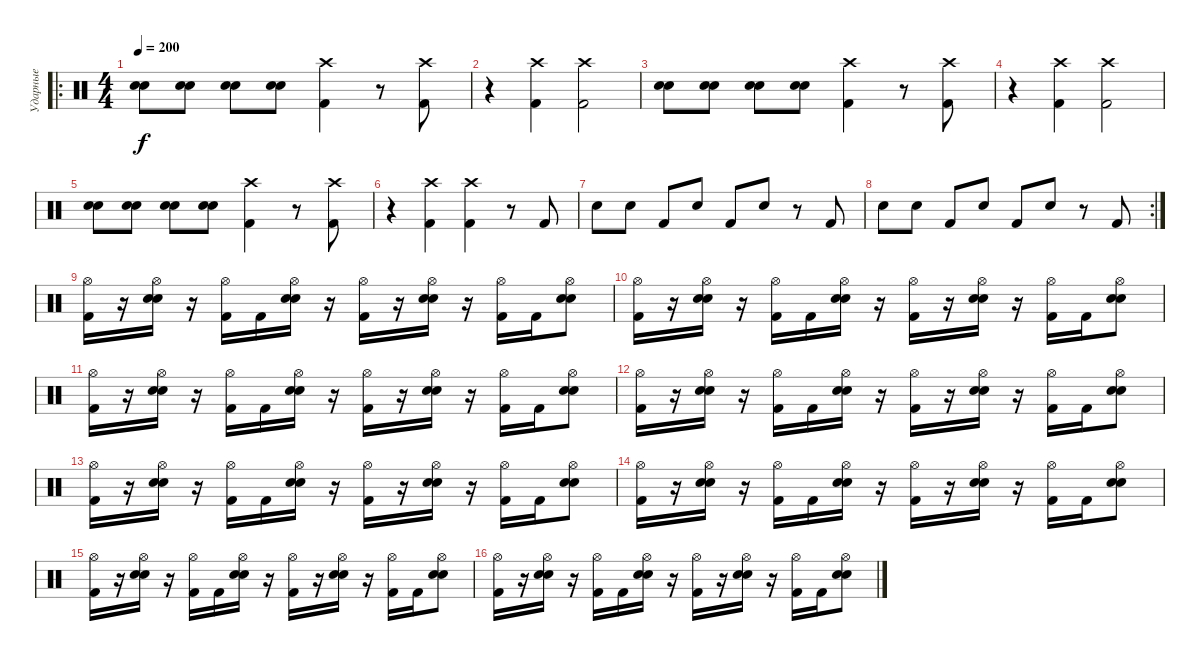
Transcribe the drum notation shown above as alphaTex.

\track ("Ударные" "Ударные") {instrument percussion}
\staff {score}
\articulation defaults
\ro
\ts (4 4)
\tempo 200
\clef neutral
\ks c
("Electric Snare (hit)" "Snare (hit) 2").8{dy f} ("Electric Snare (hit)" "Snare (hit) 2").8 ("Electric Snare (hit)" "Snare (hit) 2").8 ("Electric Snare (hit)" "Snare (hit) 2").8 ("Kick (hit) 2" "Crash high (hit)").4 r.8 ("Kick (hit) 2" "Crash high (hit)").8 |
r.4 ("Kick (hit) 2" "Crash high (hit)").4 ("Kick (hit) 2" "Crash high (hit)").2 |
("Electric Snare (hit)" "Snare (hit) 2").8 ("Electric Snare (hit)" "Snare (hit) 2").8 ("Electric Snare (hit)" "Snare (hit) 2").8 ("Electric Snare (hit)" "Snare (hit) 2").8 ("Kick (hit) 2" "Crash high (hit)").4 r.8 ("Kick (hit) 2" "Crash high (hit)").8 |
r.4 ("Kick (hit) 2" "Crash high (hit)").4 ("Kick (hit) 2" "Crash high (hit)").2 |
("Electric Snare (hit)" "Snare (hit) 2").8 ("Electric Snare (hit)" "Snare (hit) 2").8 ("Electric Snare (hit)" "Snare (hit) 2").8 ("Electric Snare (hit)" "Snare (hit) 2").8 ("Kick (hit) 2" "Crash high (hit)").4 r.8 ("Kick (hit) 2" "Crash high (hit)").8 |
r.4 ("Kick (hit) 2" "Crash high (hit)").4 ("Kick (hit) 2" "Crash high (hit)").4 r.8 "Kick (hit) 2".8 |
"Electric Snare (hit)".8 "Electric Snare (hit)".8 "Kick (hit) 2".8 "Electric Snare (hit)".8 "Kick (hit) 2".8 "Electric Snare (hit)".8 r.8 "Kick (hit) 2".8 |
\rc 2 "Electric Snare (hit)".8 "Electric Snare (hit)".8 "Kick (hit) 2".8 "Electric Snare (hit)".8 "Kick (hit) 2".8 "Electric Snare (hit)".8
r.8 "Kick (hit) 2".8 |
("Hi-Hat (open)" "Kick (hit) 2").16 r.16 ("Hi-Hat (open)" "Electric Snare (hit)" "Snare (hit) 2").16 r.16 ("Hi-Hat (open)" "Kick (hit) 2").16 "Kick (hit) 2".16 ("Hi-Hat (open)" "Electric Snare (hit)" "Snare (hit) 2").16 r.16 ("Hi-Hat (open)" "Kick (hit) 2").16 r.16 ("Hi-Hat (open)" "Electric Snare (hit)" "Snare (hit) 2").16 r.16 ("Hi-Hat (open)" "Kick (hit) 2").16 "Kick (hit) 2".16 ("Hi-Hat (open)" "Electric Snare (hit)" "Snare (hit) 2").8 |
("Hi-Hat (open)" "Kick (hit) 2").16 r.16 ("Hi-Hat (open)" "Electric Snare (hit)" "Snare (hit) 2").16 r.16 ("Hi-Hat (open)" "Kick (hit) 2").16 "Kick (hit) 2".16 ("Hi-Hat (open)" "Electric Snare (hit)" "Snare (hit) 2").16 r.16 ("Hi-Hat (open)" "Kick (hit) 2").16 r.16 ("Hi-Hat (open)" "Electric Snare (hit)" "Snare (hit) 2").16 r.16 ("Hi-Hat (open)" "Kick (hit) 2").16 "Kick (hit) 2".16 ("Hi-Hat (open)" "Electric Snare (hit)" "Snare (hit) 2").8 |
("Hi-Hat (open)" "Kick (hit) 2").16 r.16 ("Hi-Hat (open)" "Electric Snare (hit)" "Snare (hit) 2").16 r.16 ("Hi-Hat (open)" "Kick (hit) 2").16 "Kick (hit) 2".16 ("Hi-Hat (open)" "Electric Snare (hit)" "Snare (hit) 2").16 r.16 ("Hi-Hat (open)" "Kick (hit) 2").16 r.16 ("Hi-Hat (open)" "Electric Snare (hit)" "Snare (hit) 2").16 r.16 ("Hi-Hat (open)" "Kick (hit) 2").16 "Kick (hit) 2".16 ("Hi-Hat (open)" "Electric Snare (hit)" "Snare (hit) 2").8 |
("Hi-Hat (open)" "Kick (hit) 2").16 r.16 ("Hi-Hat (open)" "Electric Snare (hit)" "Snare (hit) 2").16 r.16 ("Hi-Hat (open)" "Kick (hit) 2").16 "Kick (hit) 2".16 ("Hi-Hat (open)" "Electric Snare (hit)" "Snare (hit) 2").16 r.16 ("Hi-Hat (open)" "Kick (hit) 2").16 r.16 ("Hi-Hat (open)" "Electric Snare (hit)" "Snare (hit) 2").16 r.16 ("Hi-Hat (open)" "Kick (hit) 2").16 "Kick (hit) 2".16 ("Hi-Hat (open)" "Electric Snare (hit)" "Snare (hit) 2").8 |
("Hi-Hat (open)" "Kick (hit) 2").16 r.16 ("Hi-Hat (open)" "Electric Snare (hit)" "Snare (hit) 2").16 r.16 ("Hi-Hat (open)" "Kick (hit) 2").16 "Kick (hit) 2".16 ("Hi-Hat (open)" "Electric Snare (hit)" "Snare (hit) 2").16 r.16 ("Hi-Hat (open)" "Kick (hit) 2").16 r.16 ("Hi-Hat (open)" "Electric Snare (hit)" "Snare (hit) 2").16 r.16 ("Hi-Hat (open)" "Kick (hit) 2").16 "Kick (hit) 2".16 ("Hi-Hat (open)" "Electric Snare (hit)" "Snare (hit) 2").8 |
("Hi-Hat (open)" "Kick (hit) 2").16 r.16 ("Hi-Hat (open)" "Electric Snare (hit)" "Snare (hit) 2").16 r.16 ("Hi-Hat (open)" "Kick (hit) 2").16 "Kick (hit) 2".16 ("Hi-Hat (open)" "Electric Snare (hit)" "Snare (hit) 2").16 r.16 ("Hi-Hat (open)" "Kick (hit) 2").16 r.16 ("Hi-Hat (open)" "Electric Snare (hit)" "Snare (hit) 2").16 r.16 ("Hi-Hat (open)" "Kick (hit) 2").16 "Kick (hit) 2".16 ("Hi-Hat (open)" "Electric Snare (hit)" "Snare (hit) 2").8 |
("Hi-Hat (open)" "Kick (hit) 2").16 r.16 ("Hi-Hat (open)" "Electric Snare (hit)" "Snare (hit) 2").16 r.16 ("Hi-Hat (open)" "Kick (hit) 2").16 "Kick (hit) 2".16 ("Hi-Hat (open)" "Electric Snare (hit)" "Snare (hit) 2").16 r.16 ("Hi-Hat (open)" "Kick (hit) 2").16 r.16 ("Hi-Hat (open)" "Electric Snare (hit)" "Snare (hit) 2").16 r.16 ("Hi-Hat (open)" "Kick (hit) 2").16 "Kick (hit) 2".16 ("Hi-Hat (open)" "Electric Snare (hit)" "Snare (hit) 2").8 |
("Hi-Hat (open)" "Kick (hit) 2").16 r.16 ("Hi-Hat (open)" "Electric Snare (hit)" "Snare (hit) 2").16 r.16 ("Hi-Hat (open)" "Kick (hit) 2").16 "Kick (hit) 2".16 ("Hi-Hat (open)" "Electric Snare (hit)" "Snare (hit) 2").16 r.16 ("Hi-Hat (open)" "Kick (hit) 2").16 r.16 ("Hi-Hat (open)" "Electric Snare (hit)" "Snare (hit) 2").16 r.16 ("Hi-Hat (open)" "Kick (hit) 2").16 "Kick (hit) 2".16 ("Hi-Hat (open)" "Electric Snare (hit)" "Snare (hit) 2").8
